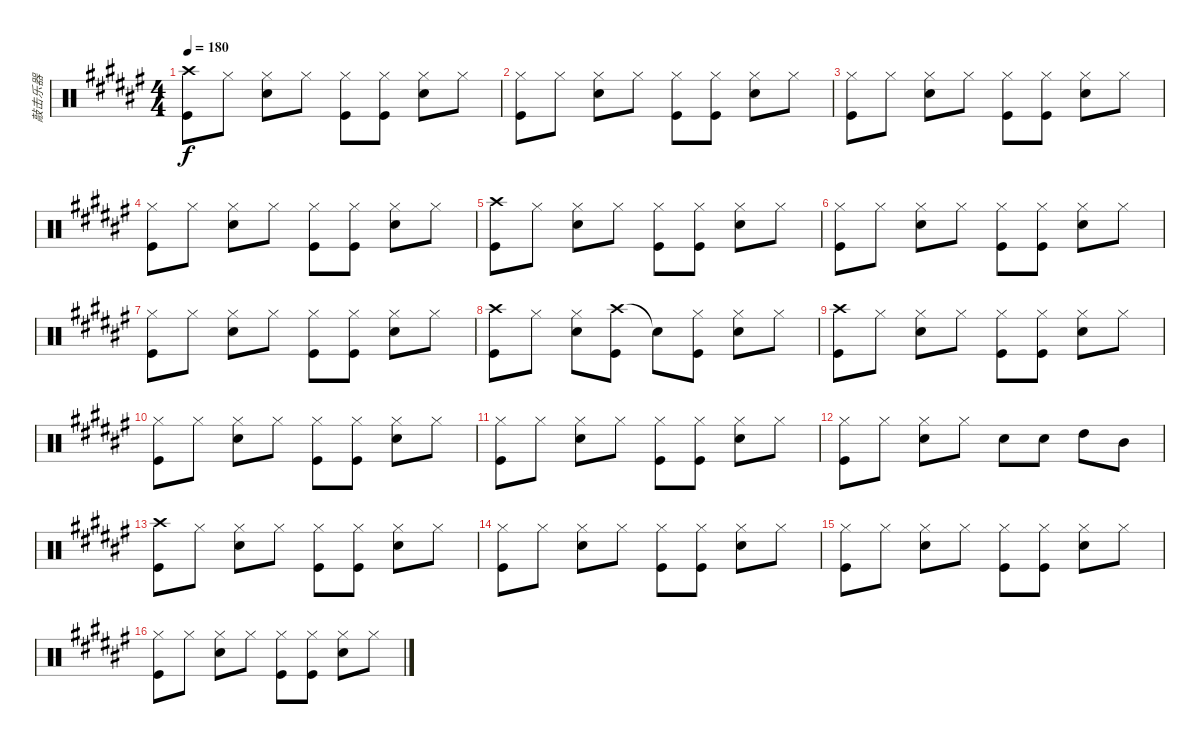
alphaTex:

\track ("敲击乐器" "敲击乐器") {instrument percussion}
\staff {score}
\articulation defaults
\ts (4 4)
\tempo 180
\clef neutral
\ks f#
("Crash high (hit)" "Kick (hit)").8{dy f} "Hi-Hat (closed)".8 ("Hi-Hat (closed)" "Electric Snare (hit)").8 "Hi-Hat (closed)".8 ("Hi-Hat (closed)" "Kick (hit)").8 ("Hi-Hat (closed)" "Kick (hit)").8 ("Hi-Hat (closed)" "Electric Snare (hit)").8 "Hi-Hat (closed)".8 |
("Hi-Hat (closed)" "Kick (hit)").8 "Hi-Hat (closed)".8 ("Hi-Hat (closed)" "Electric Snare (hit)").8 "Hi-Hat (closed)".8 ("Hi-Hat (closed)" "Kick (hit)").8 ("Hi-Hat (closed)" "Kick (hit)").8 ("Hi-Hat (closed)" "Electric Snare (hit)").8 "Hi-Hat (closed)".8 |
("Hi-Hat (closed)" "Kick (hit)").8 "Hi-Hat (closed)".8 ("Hi-Hat (closed)" "Electric Snare (hit)").8 "Hi-Hat (closed)".8 ("Hi-Hat (closed)" "Kick (hit)").8 ("Hi-Hat (closed)" "Kick (hit)").8 ("Hi-Hat (closed)" "Electric Snare (hit)").8 "Hi-Hat (closed)".8 |
("Hi-Hat (closed)" "Kick (hit)").8 "Hi-Hat (closed)".8 ("Hi-Hat (closed)" "Electric Snare (hit)").8 "Hi-Hat (closed)".8 ("Hi-Hat (closed)" "Kick (hit)").8 ("Hi-Hat (closed)" "Kick (hit)").8 ("Hi-Hat (closed)" "Electric Snare (hit)").8 "Hi-Hat (closed)".8 |
("Crash high (hit)" "Kick (hit)").8 "Hi-Hat (closed)".8 ("Hi-Hat (closed)" "Electric Snare (hit)").8 "Hi-Hat (closed)".8 ("Hi-Hat (closed)" "Kick (hit)").8 ("Hi-Hat (closed)" "Kick (hit)").8 ("Hi-Hat (closed)" "Electric Snare (hit)").8 "Hi-Hat (closed)".8 |
("Hi-Hat (closed)" "Kick (hit)").8 "Hi-Hat (closed)".8 ("Hi-Hat (closed)" "Electric Snare (hit)").8 "Hi-Hat (closed)".8 ("Hi-Hat (closed)" "Kick (hit)").8 ("Hi-Hat (closed)" "Kick (hit)").8 ("Hi-Hat (closed)" "Electric Snare (hit)").8 "Hi-Hat (closed)".8 |
("Hi-Hat (closed)" "Kick (hit)").8 "Hi-Hat (closed)".8 ("Hi-Hat (closed)" "Electric Snare (hit)").8 "Hi-Hat (closed)".8 ("Hi-Hat (closed)" "Kick (hit)").8 ("Hi-Hat (closed)" "Kick (hit)").8 ("Hi-Hat (closed)" "Electric Snare (hit)").8 "Hi-Hat (closed)".8 |
("Crash high (hit)" "Kick (hit)").8 "Hi-Hat (closed)".8 ("Hi-Hat (closed)" "Electric Snare (hit)").8 ("Crash high (hit)" "Kick (hit)").8 "Snare (hit)"{t}.8 ("Hi-Hat (closed)" "Kick (hit)").8 ("Hi-Hat (closed)" "Electric Snare (hit)").8 "Hi-Hat (closed)".8 |
("Crash high (hit)" "Kick (hit)").8 "Hi-Hat (closed)".8 ("Hi-Hat (closed)" "Electric Snare (hit)").8 "Hi-Hat (closed)".8 ("Hi-Hat (closed)" "Kick (hit)").8 ("Hi-Hat (closed)" "Kick (hit)").8 ("Hi-Hat (closed)" "Electric Snare (hit)").8 "Hi-Hat (closed)".8 |
("Hi-Hat (closed)" "Kick (hit)").8 "Hi-Hat (closed)".8 ("Hi-Hat (closed)" "Electric Snare (hit)").8 "Hi-Hat (closed)".8 ("Hi-Hat (closed)" "Kick (hit)").8 ("Hi-Hat (closed)" "Kick (hit)").8 ("Hi-Hat (closed)" "Electric Snare (hit)").8 "Hi-Hat (closed)".8 |
("Hi-Hat (closed)" "Kick (hit)").8 "Hi-Hat (closed)".8 ("Hi-Hat (closed)" "Electric Snare (hit)").8 "Hi-Hat (closed)".8 ("Hi-Hat (closed)" "Kick (hit)").8 ("Hi-Hat (closed)" "Kick (hit)").8 ("Hi-Hat (closed)" "Electric Snare (hit)").8 "Hi-Hat (closed)".8 |
("Hi-Hat (closed)" "Kick (hit)").8 "Hi-Hat (closed)".8 ("Hi-Hat (closed)" "Electric Snare (hit)").8 "Hi-Hat (closed)".8 "Electric Snare (hit)".8 "Electric Snare (hit)".8 "High Tom (hit)".8 "Mid Tom (hit)".8 |
("Crash high (hit)" "Kick (hit)").8 "Hi-Hat (closed)".8 ("Hi-Hat (closed)" "Electric Snare (hit)").8 "Hi-Hat (closed)".8 ("Hi-Hat (closed)" "Kick (hit)").8 ("Hi-Hat (closed)" "Kick (hit)").8 ("Hi-Hat (closed)" "Electric Snare (hit)").8 "Hi-Hat (closed)".8 |
("Hi-Hat (closed)" "Kick (hit)").8 "Hi-Hat (closed)".8 ("Hi-Hat (closed)" "Electric Snare (hit)").8 "Hi-Hat (closed)".8 ("Hi-Hat (closed)" "Kick (hit)").8 ("Hi-Hat (closed)" "Kick (hit)").8 ("Hi-Hat (closed)" "Electric Snare (hit)").8 "Hi-Hat (closed)".8 |
("Hi-Hat (closed)" "Kick (hit)").8 "Hi-Hat (closed)".8 ("Hi-Hat (closed)" "Electric Snare (hit)").8 "Hi-Hat (closed)".8 ("Hi-Hat (closed)" "Kick (hit)").8 ("Hi-Hat (closed)" "Kick (hit)").8 ("Hi-Hat (closed)" "Electric Snare (hit)").8 "Hi-Hat (closed)".8 |
("Hi-Hat (closed)" "Kick (hit)").8 "Hi-Hat (closed)".8 ("Hi-Hat (closed)" "Electric Snare (hit)").8 "Hi-Hat (closed)".8 ("Hi-Hat (closed)" "Kick (hit)").8 ("Hi-Hat (closed)" "Kick (hit)").8 ("Hi-Hat (closed)" "Electric Snare (hit)").8 "Hi-Hat (closed)".8
